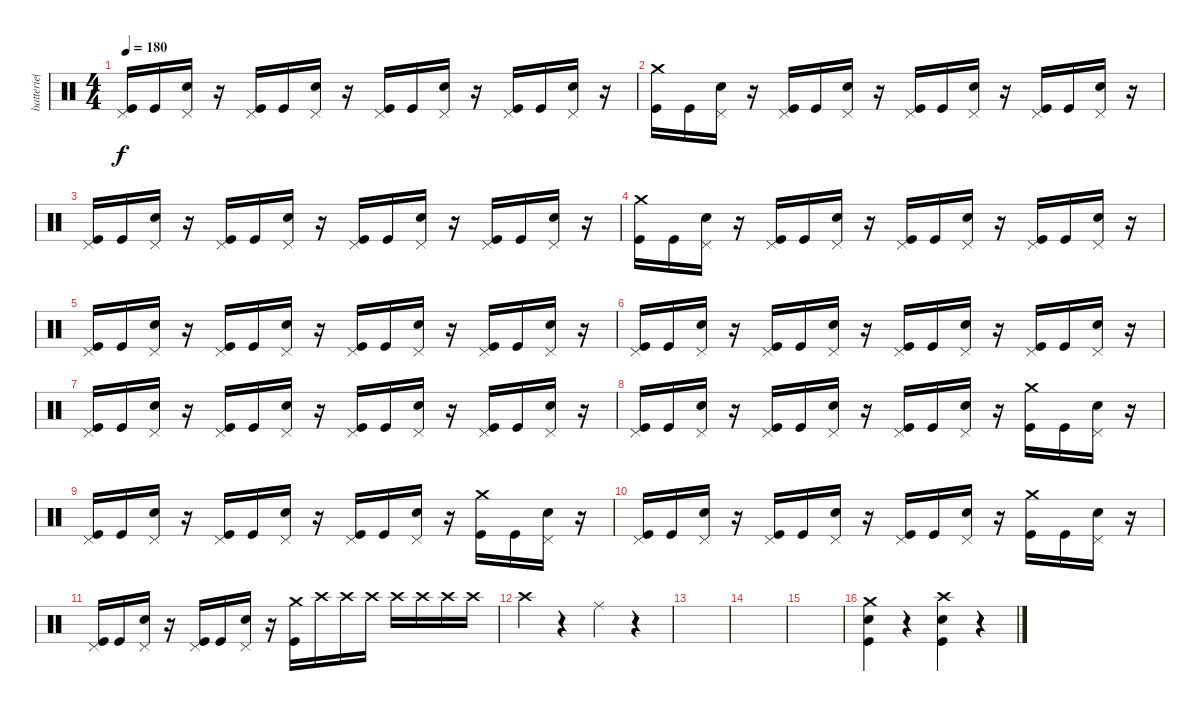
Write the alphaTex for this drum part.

\track ("batterie( Rob )" "batterie( ") {instrument percussion}
\staff {score}
\articulation defaults
\ts (4 4)
\tempo 180
\clef neutral
\ks c
("Pedal Hi-Hat (hit)" "Kick (hit)").16{dy f} "Kick (hit)".16 ("Pedal Hi-Hat (hit)" "Snare (hit) 2").16 r.16 ("Pedal Hi-Hat (hit)" "Kick (hit)").16 "Kick (hit)".16 ("Pedal Hi-Hat (hit)" "Snare (hit) 2").16 r.16 ("Pedal Hi-Hat (hit)" "Kick (hit)").16 "Kick (hit)".16 ("Pedal Hi-Hat (hit)" "Snare (hit) 2").16 r.16 ("Pedal Hi-Hat (hit)" "Kick (hit)").16 "Kick (hit)".16 ("Pedal Hi-Hat (hit)" "Snare (hit) 2").16 r.16 |
("Crash medium (hit)" "Kick (hit)").16 "Kick (hit)".16 ("Pedal Hi-Hat (hit)" "Snare (hit) 2").16 r.16 ("Pedal Hi-Hat (hit)" "Kick (hit)").16 "Kick (hit)".16 ("Pedal Hi-Hat (hit)" "Snare (hit) 2").16 r.16 ("Pedal Hi-Hat (hit)" "Kick (hit)").16 "Kick (hit)".16 ("Pedal Hi-Hat (hit)" "Snare (hit) 2").16 r.16 ("Pedal Hi-Hat (hit)" "Kick (hit)").16 "Kick (hit)".16 ("Pedal Hi-Hat (hit)" "Snare (hit) 2").16 r.16 |
("Pedal Hi-Hat (hit)" "Kick (hit)").16 "Kick (hit)".16 ("Pedal Hi-Hat (hit)" "Snare (hit) 2").16 r.16 ("Pedal Hi-Hat (hit)" "Kick (hit)").16 "Kick (hit)".16 ("Pedal Hi-Hat (hit)" "Snare (hit) 2").16 r.16 ("Pedal Hi-Hat (hit)" "Kick (hit)").16 "Kick (hit)".16 ("Pedal Hi-Hat (hit)" "Snare (hit) 2").16 r.16 ("Pedal Hi-Hat (hit)" "Kick (hit)").16 "Kick (hit)".16 ("Pedal Hi-Hat (hit)" "Snare (hit) 2").16 r.16 |
("Crash medium (hit)" "Kick (hit)").16 "Kick (hit)".16 ("Pedal Hi-Hat (hit)" "Snare (hit) 2").16 r.16 ("Pedal Hi-Hat (hit)" "Kick (hit)").16 "Kick (hit)".16 ("Pedal Hi-Hat (hit)" "Snare (hit) 2").16 r.16 ("Pedal Hi-Hat (hit)" "Kick (hit)").16 "Kick (hit)".16 ("Pedal Hi-Hat (hit)" "Snare (hit) 2").16 r.16 ("Pedal Hi-Hat (hit)" "Kick (hit)").16 "Kick (hit)".16 ("Pedal Hi-Hat (hit)" "Snare (hit) 2").16 r.16 |
("Pedal Hi-Hat (hit)" "Kick (hit)").16 "Kick (hit)".16 ("Pedal Hi-Hat (hit)" "Snare (hit) 2").16 r.16 ("Pedal Hi-Hat (hit)" "Kick (hit)").16 "Kick (hit)".16 ("Pedal Hi-Hat (hit)" "Snare (hit) 2").16 r.16 ("Pedal Hi-Hat (hit)" "Kick (hit)").16 "Kick (hit)".16 ("Pedal Hi-Hat (hit)" "Snare (hit) 2").16 r.16 ("Pedal Hi-Hat (hit)" "Kick (hit)").16 "Kick (hit)".16 ("Pedal Hi-Hat (hit)" "Snare (hit) 2").16 r.16 |
("Pedal Hi-Hat (hit)" "Kick (hit)").16 "Kick (hit)".16 ("Pedal Hi-Hat (hit)" "Snare (hit) 2").16 r.16 ("Pedal Hi-Hat (hit)" "Kick (hit)").16 "Kick (hit)".16 ("Pedal Hi-Hat (hit)" "Snare (hit) 2").16 r.16 ("Pedal Hi-Hat (hit)" "Kick (hit)").16 "Kick (hit)".16 ("Pedal Hi-Hat (hit)" "Snare (hit) 2").16 r.16 ("Pedal Hi-Hat (hit)" "Kick (hit)").16 "Kick (hit)".16 ("Pedal Hi-Hat (hit)" "Snare (hit) 2").16 r.16 |
("Pedal Hi-Hat (hit)" "Kick (hit)").16 "Kick (hit)".16 ("Pedal Hi-Hat (hit)" "Snare (hit) 2").16 r.16 ("Pedal Hi-Hat (hit)" "Kick (hit)").16 "Kick (hit)".16 ("Pedal Hi-Hat (hit)" "Snare (hit) 2").16 r.16 ("Pedal Hi-Hat (hit)" "Kick (hit)").16 "Kick (hit)".16 ("Pedal Hi-Hat (hit)" "Snare (hit) 2").16 r.16 ("Pedal Hi-Hat (hit)" "Kick (hit)").16 "Kick (hit)".16 ("Pedal Hi-Hat (hit)" "Snare (hit) 2").16 r.16 |
("Pedal Hi-Hat (hit)" "Kick (hit)").16 "Kick (hit)".16 ("Pedal Hi-Hat (hit)" "Snare (hit) 2").16 r.16 ("Pedal Hi-Hat (hit)" "Kick (hit)").16 "Kick (hit)".16 ("Pedal Hi-Hat (hit)" "Snare (hit) 2").16 r.16 ("Pedal Hi-Hat (hit)" "Kick (hit)").16 "Kick (hit)".16 ("Pedal Hi-Hat (hit)" "Snare (hit) 2").16 r.16 ("Crash medium (hit)" "Kick (hit)").16 "Kick (hit)".16 ("Pedal Hi-Hat (hit)" "Snare (hit) 2").16 r.16 |
("Pedal Hi-Hat (hit)" "Kick (hit)").16 "Kick (hit)".16 ("Pedal Hi-Hat (hit)" "Snare (hit) 2").16 r.16 ("Pedal Hi-Hat (hit)" "Kick (hit)").16 "Kick (hit)".16 ("Pedal Hi-Hat (hit)" "Snare (hit) 2").16 r.16 ("Pedal Hi-Hat (hit)" "Kick (hit)").16 "Kick (hit)".16 ("Pedal Hi-Hat (hit)" "Snare (hit) 2").16 r.16 ("Crash medium (hit)" "Kick (hit)").16 "Kick (hit)".16 ("Pedal Hi-Hat (hit)" "Snare (hit) 2").16 r.16 |
("Pedal Hi-Hat (hit)" "Kick (hit)").16 "Kick (hit)".16 ("Pedal Hi-Hat (hit)" "Snare (hit) 2").16 r.16 ("Pedal Hi-Hat (hit)" "Kick (hit)").16 "Kick (hit)".16 ("Pedal Hi-Hat (hit)" "Snare (hit) 2").16 r.16 ("Pedal Hi-Hat (hit)" "Kick (hit)").16 "Kick (hit)".16 ("Pedal Hi-Hat (hit)" "Snare (hit) 2").16 r.16 ("Crash medium (hit)" "Kick (hit)").16 "Kick (hit)".16 ("Pedal Hi-Hat (hit)" "Snare (hit) 2").16 r.16 |
("Pedal Hi-Hat (hit)" "Kick (hit)").16 "Kick (hit)".16 ("Pedal Hi-Hat (hit)" "Snare (hit) 2").16 r.16 ("Pedal Hi-Hat (hit)" "Kick (hit)").16 "Kick (hit)".16 ("Pedal Hi-Hat (hit)" "Snare (hit) 2").16 r.16 ("Crash medium (hit)" "Kick (hit)").16 "Crash high (hit)".16 "Crash high (hit)".16 "Crash high (hit)".16 "Crash high (hit)".16 "Crash high (hit)".16 "Crash high (hit)".16 "Crash high (hit)".16 |
"Crash high (hit)".4 r.4 "Ride (middle)".4 r.4 |
|
|
|
("Crash medium (hit)" "Snare (hit) 2" "Kick (hit)").4 r.4 ("Crash high (hit)" "Snare (hit) 2" "Kick (hit)").4 r.4
